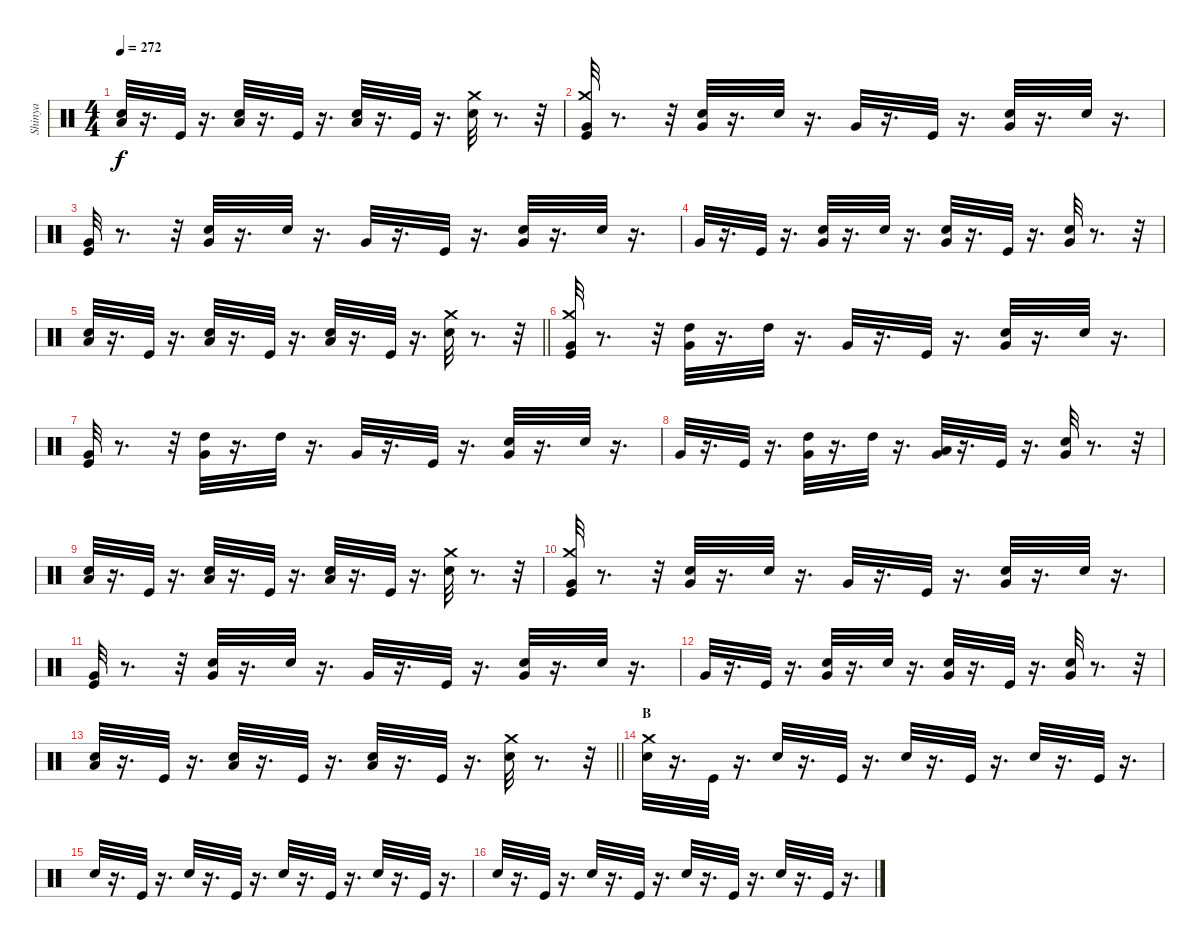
\track ("Shinya" "Shinya") {instrument percussion}
\staff {score}
\articulation defaults
\ts (4 4)
\tempo 272
\clef neutral
\ks c
("Low Tom (hit)" "Snare (hit) 2").32{dy f} r.16{d} "Kick (hit)".32 r.16{d} ("Low Tom (hit)" "Snare (hit) 2").32 r.16{d} "Kick (hit)".32 r.16{d} ("Low Tom (hit)" "Snare (hit) 2").32 r.16{d} "Kick (hit)".32 r.16{d} ("Crash medium (hit)" "Snare (hit) 2").32 r.8{d} r.32 |
("Very Low Tom (hit)" "Kick (hit)" "Crash medium (hit)").32 r.8{d} r.32 ("Snare (hit) 2" "Very Low Tom (hit)").32 r.16{d} "Snare (hit) 2".32 r.16{d} "Very Low Tom (hit)".32 r.16{d} "Kick (hit)".32 r.16{d} ("Very Low Tom (hit)" "Snare (hit) 2").32 r.16{d} "Snare (hit) 2".32 r.16{d} |
("Very Low Tom (hit)" "Kick (hit)").32 r.8{d} r.32 ("Snare (hit) 2" "Very Low Tom (hit)").32 r.16{d} "Snare (hit) 2".32 r.16{d} "Very Low Tom (hit)".32 r.16{d} "Kick (hit)".32 r.16{d} ("Very Low Tom (hit)" "Snare (hit) 2").32 r.16{d} "Snare (hit) 2".32 r.16{d} |
"Very Low Tom (hit)".32 r.16{d} "Kick (hit)".32 r.16{d} ("Very Low Tom (hit)" "Snare (hit) 2").32 r.16{d} "Snare (hit) 2".32 r.16{d} ("Snare (hit) 2" "Very Low Tom (hit)").32 r.16{d} "Kick (hit)".32 r.16{d} ("Very Low Tom (hit)" "Snare (hit) 2").32 r.8{d} r.32 |
\barLineRight lightlight
("Low Tom (hit)" "Snare (hit) 2").32 r.16{d} "Kick (hit)".32 r.16{d} ("Low Tom (hit)" "Snare (hit) 2").32 r.16{d} "Kick (hit)".32 r.16{d} ("Low Tom (hit)" "Snare (hit) 2").32 r.16{d} "Kick (hit)".32 r.16{d} ("Crash medium (hit)" "Snare (hit) 2").32 r.8{d} r.32 |
("Very Low Tom (hit)" "Kick (hit)" "Crash medium (hit)").32 r.8{d} r.32 ("High Tom (hit)" "Very Low Tom (hit)").32 r.16{d} "High Tom (hit)".32 r.16{d} "Very Low Tom (hit)".32 r.16{d} "Kick (hit)".32 r.16{d} ("Very Low Tom (hit)" "Snare (hit) 2").32 r.16{d} "Snare (hit) 2".32 r.16{d} |
("Very Low Tom (hit)" "Kick (hit)").32 r.8{d} r.32 ("High Tom (hit)" "Very Low Tom (hit)").32 r.16{d} "High Tom (hit)".32 r.16{d} "Very Low Tom (hit)".32 r.16{d} "Kick (hit)".32 r.16{d} ("Very Low Tom (hit)" "Snare (hit) 2").32 r.16{d} "Snare (hit) 2".32 r.16{d} |
"Very Low Tom (hit)".32 r.16{d} "Kick (hit)".32 r.16{d} ("Very Low Tom (hit)" "High Tom (hit)").32 r.16{d} "High Tom (hit)".32 r.16{d} ("Very Low Tom (hit)" "Low Tom (hit)").32 r.16{d} "Kick (hit)".32 r.16{d} ("Very Low Tom (hit)" "Snare (hit) 2").32 r.8{d} r.32 |
("Low Tom (hit)" "Snare (hit) 2").32 r.16{d} "Kick (hit)".32 r.16{d} ("Low Tom (hit)" "Snare (hit) 2").32 r.16{d} "Kick (hit)".32 r.16{d} ("Low Tom (hit)" "Snare (hit) 2").32 r.16{d} "Kick (hit)".32 r.16{d} ("Crash medium (hit)" "Snare (hit) 2").32 r.8{d} r.32 |
("Very Low Tom (hit)" "Kick (hit)" "Crash medium (hit)").32 r.8{d} r.32 ("Snare (hit) 2" "Very Low Tom (hit)").32 r.16{d} "Snare (hit) 2".32 r.16{d} "Very Low Tom (hit)".32 r.16{d} "Kick (hit)".32 r.16{d} ("Very Low Tom (hit)" "Snare (hit) 2").32 r.16{d} "Snare (hit) 2".32 r.16{d} |
("Very Low Tom (hit)" "Kick (hit)").32 r.8{d} r.32 ("Snare (hit) 2" "Very Low Tom (hit)").32 r.16{d} "Snare (hit) 2".32 r.16{d} "Very Low Tom (hit)".32 r.16{d} "Kick (hit)".32 r.16{d} ("Very Low Tom (hit)" "Snare (hit) 2").32 r.16{d} "Snare (hit) 2".32 r.16{d} |
"Very Low Tom (hit)".32 r.16{d} "Kick (hit)".32 r.16{d} ("Very Low Tom (hit)" "Snare (hit) 2").32 r.16{d} "Snare (hit) 2".32 r.16{d} ("Snare (hit) 2" "Very Low Tom (hit)").32 r.16{d} "Kick (hit)".32 r.16{d} ("Very Low Tom (hit)" "Snare (hit) 2").32 r.8{d} r.32 |
\barLineRight lightlight
("Low Tom (hit)" "Snare (hit) 2").32 r.16{d} "Kick (hit)".32 r.16{d} ("Low Tom (hit)" "Snare (hit) 2").32 r.16{d} "Kick (hit)".32 r.16{d} ("Low Tom (hit)" "Snare (hit) 2").32 r.16{d} "Kick (hit)".32 r.16{d} ("Crash medium (hit)" "Snare (hit) 2").32 r.8{d} r.32 |
\section ("" "B")
("Crash medium (hit)" "Snare (hit) 2").32 r.16{d} "Kick (hit)".32 r.16{d} "Snare (hit) 2".32 r.16{d} "Kick (hit)".32 r.16{d} "Snare (hit) 2".32 r.16{d} "Kick (hit)".32 r.16{d} "Snare (hit) 2".32 r.16{d} "Kick (hit)".32 r.16{d} |
"Snare (hit) 2".32 r.16{d} "Kick (hit)".32 r.16{d} "Snare (hit) 2".32 r.16{d} "Kick (hit)".32 r.16{d} "Snare (hit) 2".32 r.16{d} "Kick (hit)".32 r.16{d} "Snare (hit) 2".32 r.16{d} "Kick (hit)".32 r.16{d} |
"Snare (hit) 2".32 r.16{d} "Kick (hit)".32 r.16{d} "Snare (hit) 2".32 r.16{d} "Kick (hit)".32 r.16{d} "Snare (hit) 2".32 r.16{d} "Kick (hit)".32 r.16{d} "Snare (hit) 2".32 r.16{d} "Kick (hit)".32 r.16{d}
